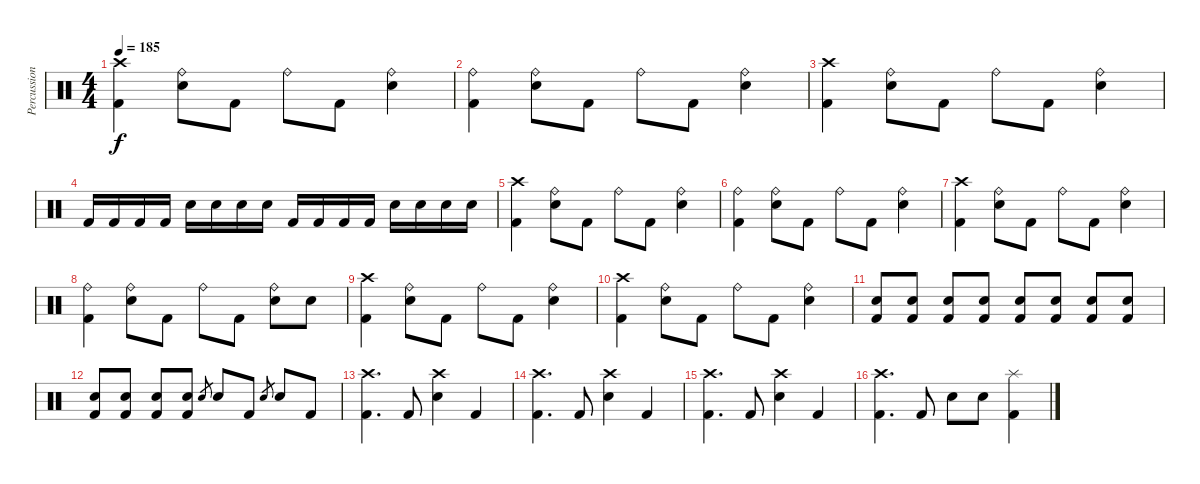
\track ("Percussion" "Percussion") {instrument percussion}
\staff {score}
\articulation defaults
\ts (4 4)
\tempo 185
\clef neutral
\ks c
("Crash high (hit)" "Kick (hit) 2").4{dy f} ("Ride (bell)" "Snare (hit) 2").8 "Kick (hit) 2".8 "Ride (bell)".8 "Kick (hit) 2".8 ("Ride (bell)" "Snare (hit) 2").4 |
("Ride (bell)" "Kick (hit) 2").4 ("Ride (bell)" "Snare (hit) 2").8 "Kick (hit) 2".8 "Ride (bell)".8 "Kick (hit) 2".8 ("Ride (bell)" "Snare (hit) 2").4 |
("Crash high (hit)" "Kick (hit) 2").4 ("Ride (bell)" "Snare (hit) 2").8 "Kick (hit) 2".8 "Ride (bell)".8 "Kick (hit) 2".8 ("Ride (bell)" "Snare (hit) 2").4 |
"Kick (hit) 2".16 "Kick (hit) 2".16 "Kick (hit) 2".16 "Kick (hit) 2".16 "Snare (hit) 2".16 "Snare (hit) 2".16 "Snare (hit) 2".16 "Snare (hit) 2".16 "Kick (hit) 2".16 "Kick (hit) 2".16 "Kick (hit) 2".16 "Kick (hit) 2".16 "Snare (hit) 2".16 "Snare (hit) 2".16 "Snare (hit) 2".16 "Snare (hit) 2".16 |
("Crash high (hit)" "Kick (hit) 2").4 ("Ride (bell)" "Snare (hit) 2").8 "Kick (hit) 2".8 "Ride (bell)".8 "Kick (hit) 2".8 ("Ride (bell)" "Snare (hit) 2").4 |
("Ride (bell)" "Kick (hit) 2").4 ("Ride (bell)" "Snare (hit) 2").8 "Kick (hit) 2".8 "Ride (bell)".8 "Kick (hit) 2".8 ("Ride (bell)" "Snare (hit) 2").4 |
("Crash high (hit)" "Kick (hit) 2").4 ("Ride (bell)" "Snare (hit) 2").8 "Kick (hit) 2".8 "Ride (bell)".8 "Kick (hit) 2".8 ("Ride (bell)" "Snare (hit) 2").4 |
("Ride (bell)" "Kick (hit) 2").4 ("Ride (bell)" "Snare (hit) 2").8 "Kick (hit) 2".8 "Ride (bell)".8 "Kick (hit) 2".8 ("Ride (bell)" "Snare (hit) 2").8 "Snare (hit) 2".8 |
("Crash high (hit)" "Kick (hit) 2").4 ("Ride (bell)" "Snare (hit) 2").8 "Kick (hit) 2".8 "Ride (bell)".8 "Kick (hit) 2".8 ("Ride (bell)" "Snare (hit) 2").4 |
("Crash high (hit)" "Kick (hit) 2").4 ("Ride (bell)" "Snare (hit) 2").8 "Kick (hit) 2".8 "Ride (bell)".8 "Kick (hit) 2".8 ("Ride (bell)" "Snare (hit) 2").4 |
("Snare (hit) 2" "Kick (hit) 2").8 ("Snare (hit) 2" "Kick (hit) 2").8{volume 7} ("Snare (hit) 2" "Kick (hit) 2").8{volume 13} ("Snare (hit) 2" "Kick (hit) 2").8 ("Snare (hit) 2" "Kick (hit) 2").8 ("Snare (hit) 2" "Kick (hit) 2").8 ("Snare (hit) 2" "Kick (hit) 2").8 ("Snare (hit) 2" "Kick (hit) 2").8 |
("Snare (hit) 2" "Kick (hit) 2").8 ("Snare (hit) 2" "Kick (hit) 2").8 ("Snare (hit) 2" "Kick (hit) 2").8 ("Snare (hit) 2" "Kick (hit) 2").8 "Snare (hit) 2".8{gr} "Snare (hit) 2".8 "Kick (hit) 2".8 "Snare (hit) 2".8{gr} "Snare (hit) 2".8 "Kick (hit) 2".8 |
("Crash high (hit)" "Kick (hit) 2").4{d} "Kick (hit) 2".8 ("Crash high (hit)" "Snare (hit) 2").4 "Kick (hit) 2".4 |
("Crash high (hit)" "Kick (hit) 2").4{d} "Kick (hit) 2".8 ("Crash high (hit)" "Snare (hit) 2").4 "Kick (hit) 2".4 |
("Crash high (hit)" "Kick (hit) 2").4{d} "Kick (hit) 2".8 ("Crash high (hit)" "Snare (hit) 2").4 "Kick (hit) 2".4 |
("Crash high (hit)" "Kick (hit) 2").4{d} "Kick (hit) 2".8 "Snare (hit) 2".8 "Snare (hit) 2".8 ("Splash (hit)" "Kick (hit) 2").4
